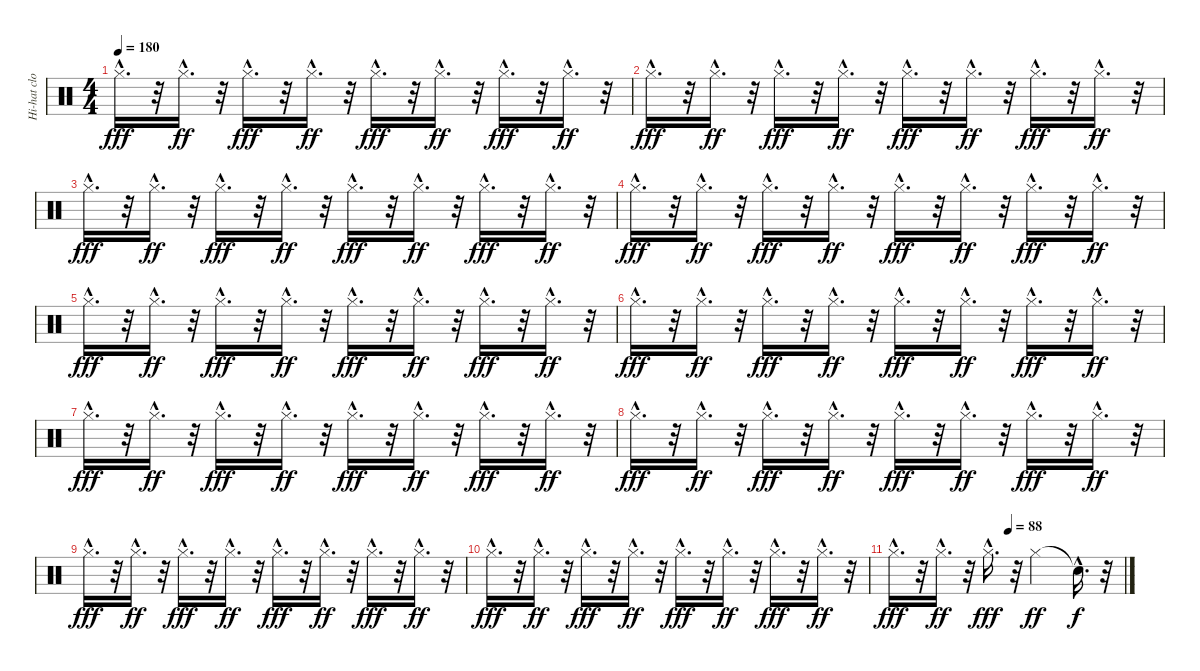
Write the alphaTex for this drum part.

\track ("Hi-hat closed" "Hi-hat clo") {instrument percussion}
\staff {score}
\articulation defaults
\ts (4 4)
\tempo 180
\clef neutral
\ks c "Hi-Hat (closed)"{hac}.16{d dy fff}
r.32 "Hi-Hat (closed)"{hac}.16{d dy ff} r.32 "Hi-Hat (closed)"{hac}.16{d dy fff} r.32 "Hi-Hat (closed)"{hac}.16{d dy ff} r.32 "Hi-Hat (closed)"{hac}.16{d dy fff} r.32 "Hi-Hat (closed)"{hac}.16{d dy ff} r.32 "Hi-Hat (closed)"{hac}.16{d dy fff} r.32 "Hi-Hat (closed)"{hac}.16{d dy ff} r.32 |
"Hi-Hat (closed)"{hac}.16{d dy fff} r.32 "Hi-Hat (closed)"{hac}.16{d dy ff} r.32 "Hi-Hat (closed)"{hac}.16{d dy fff} r.32 "Hi-Hat (closed)"{hac}.16{d dy ff} r.32 "Hi-Hat (closed)"{hac}.16{d dy fff} r.32 "Hi-Hat (closed)"{hac}.16{d dy ff} r.32 "Hi-Hat (closed)"{hac}.16{d dy fff} r.32 "Hi-Hat (closed)"{hac}.16{d dy ff} r.32 |
"Hi-Hat (closed)"{hac}.16{d dy fff} r.32 "Hi-Hat (closed)"{hac}.16{d dy ff} r.32 "Hi-Hat (closed)"{hac}.16{d dy fff} r.32 "Hi-Hat (closed)"{hac}.16{d dy ff} r.32 "Hi-Hat (closed)"{hac}.16{d dy fff} r.32 "Hi-Hat (closed)"{hac}.16{d dy ff} r.32 "Hi-Hat (closed)"{hac}.16{d dy fff} r.32 "Hi-Hat (closed)"{hac}.16{d dy ff} r.32 |
"Hi-Hat (closed)"{hac}.16{d dy fff} r.32 "Hi-Hat (closed)"{hac}.16{d dy ff} r.32 "Hi-Hat (closed)"{hac}.16{d dy fff} r.32 "Hi-Hat (closed)"{hac}.16{d dy ff} r.32 "Hi-Hat (closed)"{hac}.16{d dy fff} r.32 "Hi-Hat (closed)"{hac}.16{d dy ff} r.32 "Hi-Hat (closed)"{hac}.16{d dy fff} r.32 "Hi-Hat (closed)"{hac}.16{d dy ff} r.32 |
"Hi-Hat (closed)"{hac}.16{d dy fff} r.32 "Hi-Hat (closed)"{hac}.16{d dy ff} r.32 "Hi-Hat (closed)"{hac}.16{d dy fff} r.32 "Hi-Hat (closed)"{hac}.16{d dy ff} r.32 "Hi-Hat (closed)"{hac}.16{d dy fff} r.32 "Hi-Hat (closed)"{hac}.16{d dy ff} r.32 "Hi-Hat (closed)"{hac}.16{d dy fff} r.32 "Hi-Hat (closed)"{hac}.16{d dy ff} r.32 |
"Hi-Hat (closed)"{hac}.16{d dy fff} r.32 "Hi-Hat (closed)"{hac}.16{d dy ff} r.32 "Hi-Hat (closed)"{hac}.16{d dy fff} r.32 "Hi-Hat (closed)"{hac}.16{d dy ff} r.32 "Hi-Hat (closed)"{hac}.16{d dy fff} r.32 "Hi-Hat (closed)"{hac}.16{d dy ff} r.32 "Hi-Hat (closed)"{hac}.16{d dy fff} r.32 "Hi-Hat (closed)"{hac}.16{d dy ff} r.32 |
"Hi-Hat (closed)"{hac}.16{d dy fff} r.32 "Hi-Hat (closed)"{hac}.16{d dy ff} r.32 "Hi-Hat (closed)"{hac}.16{d dy fff} r.32 "Hi-Hat (closed)"{hac}.16{d dy ff} r.32 "Hi-Hat (closed)"{hac}.16{d dy fff} r.32 "Hi-Hat (closed)"{hac}.16{d dy ff} r.32 "Hi-Hat (closed)"{hac}.16{d dy fff} r.32 "Hi-Hat (closed)"{hac}.16{d dy ff} r.32 |
"Hi-Hat (closed)"{hac}.16{d dy fff} r.32 "Hi-Hat (closed)"{hac}.16{d dy ff} r.32 "Hi-Hat (closed)"{hac}.16{d dy fff} r.32 "Hi-Hat (closed)"{hac}.16{d dy ff} r.32 "Hi-Hat (closed)"{hac}.16{d dy fff} r.32 "Hi-Hat (closed)"{hac}.16{d dy ff} r.32 "Hi-Hat (closed)"{hac}.16{d dy fff} r.32 "Hi-Hat (closed)"{hac}.16{d dy ff} r.32 |
"Hi-Hat (closed)"{hac}.16{d dy fff} r.32 "Hi-Hat (closed)"{hac}.16{d dy ff} r.32 "Hi-Hat (closed)"{hac}.16{d dy fff} r.32 "Hi-Hat (closed)"{hac}.16{d dy ff} r.32 "Hi-Hat (closed)"{hac}.16{d dy fff} r.32 "Hi-Hat (closed)"{hac}.16{d dy ff} r.32 "Hi-Hat (closed)"{hac}.16{d dy fff} r.32 "Hi-Hat (closed)"{hac}.16{d dy ff} r.32 |
"Hi-Hat (closed)"{hac}.16{d dy fff} r.32 "Hi-Hat (closed)"{hac}.16{d dy ff} r.32 "Hi-Hat (closed)"{hac}.16{d dy fff} r.32 "Hi-Hat (closed)"{hac}.16{d dy ff} r.32 "Hi-Hat (closed)"{hac}.16{d dy fff} r.32 "Hi-Hat (closed)"{hac}.16{d dy ff} r.32 "Hi-Hat (closed)"{hac}.16{d dy fff} r.32 "Hi-Hat (closed)"{hac}.16{d dy ff} r.32 |
\tempo (88 0.5)
"Hi-Hat (closed)"{hac}.16{d dy fff} r.32 "Hi-Hat (closed)"{hac}.16{d dy ff} r.32 "Hi-Hat (closed)"{hac}.16{d dy fff} r.32 "Hi-Hat (closed)".2{dy ff} "Snare (hit)"{hac t}.16{d dy f} r.32
